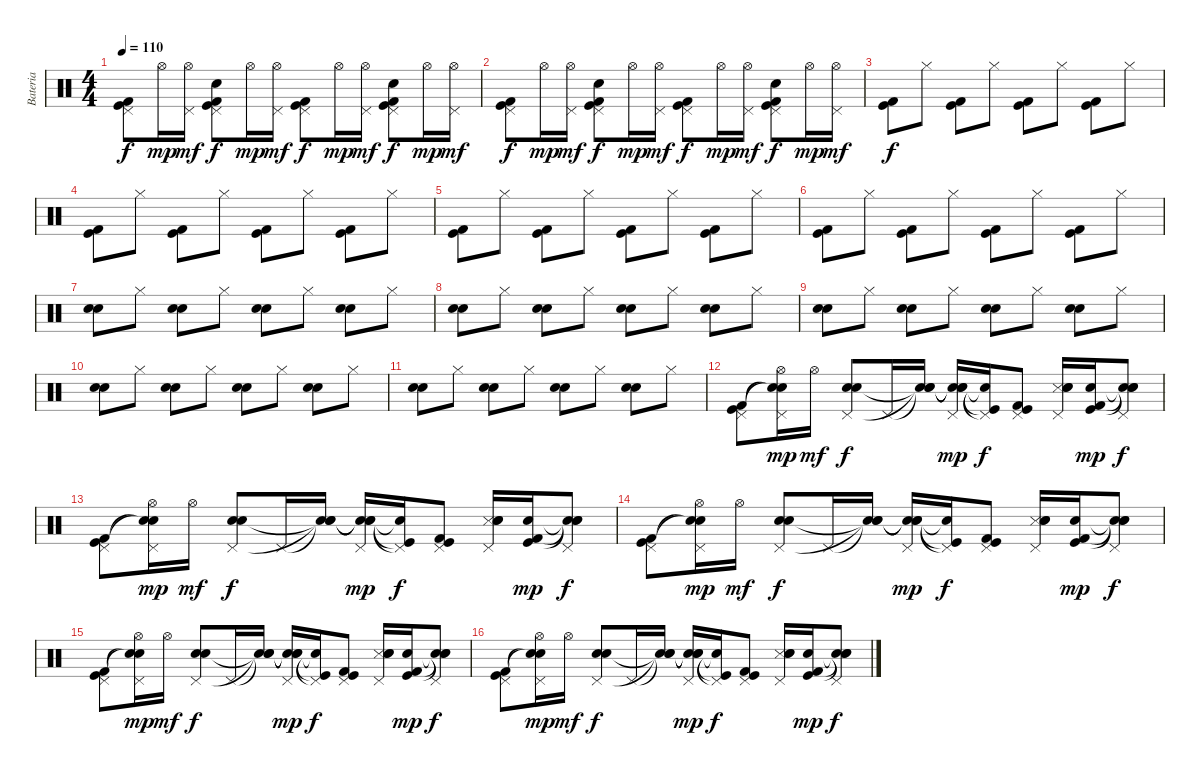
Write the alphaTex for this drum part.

\track ("Bateria" "Bateria") {instrument percussion}
\staff {score}
\articulation defaults
\ts (4 4)
\tempo 110
\clef neutral
\ks c
("Kick (hit)" "Kick (hit) 2" "Pedal Hi-Hat (hit)").8{dy f} "Hi-Hat (open)".16{dy mp} ("Hi-Hat (open)" "Pedal Hi-Hat (hit)").16{dy mf} ("Kick (hit) 2" "Kick (hit)" "Electric Snare (hit)" "Pedal Hi-Hat (hit)").8{dy f} "Hi-Hat (open)".16{dy mp} ("Hi-Hat (open)" "Pedal Hi-Hat (hit)").16{dy mf} ("Kick (hit) 2" "Kick (hit)" "Pedal Hi-Hat (hit)").8{dy f} "Hi-Hat (open)".16{dy mp} ("Hi-Hat (open)" "Pedal Hi-Hat (hit)").16{dy mf} ("Kick (hit) 2" "Kick (hit)" "Electric Snare (hit)" "Pedal Hi-Hat (hit)").8{dy f} "Hi-Hat (open)".16{dy mp} ("Hi-Hat (open)" "Pedal Hi-Hat (hit)").16{dy mf} |
("Kick (hit)" "Kick (hit) 2" "Pedal Hi-Hat (hit)").8{dy f} "Hi-Hat (open)".16{dy mp} ("Hi-Hat (open)" "Pedal Hi-Hat (hit)").16{dy mf} ("Kick (hit) 2" "Kick (hit)" "Electric Snare (hit)" "Pedal Hi-Hat (hit)").8{dy f} "Hi-Hat (open)".16{dy mp} ("Hi-Hat (open)" "Pedal Hi-Hat (hit)").16{dy mf} ("Kick (hit) 2" "Kick (hit)" "Pedal Hi-Hat (hit)").8{dy f} "Hi-Hat (open)".16{dy mp} ("Hi-Hat (open)" "Pedal Hi-Hat (hit)").16{dy mf} ("Kick (hit) 2" "Kick (hit)" "Electric Snare (hit)" "Pedal Hi-Hat (hit)").8{dy f} "Hi-Hat (open)".16{dy mp} ("Hi-Hat (open)" "Pedal Hi-Hat (hit)").16{dy mf} |
("Kick (hit)" "Kick (hit) 2").8{dy f} "Hi-Hat (closed)".8 ("Kick (hit) 2" "Kick (hit)").8 "Hi-Hat (closed)".8 ("Kick (hit) 2" "Kick (hit)").8 "Hi-Hat (closed)".8 ("Kick (hit) 2" "Kick (hit)").8 "Hi-Hat (closed)".8 |
("Kick (hit)" "Kick (hit) 2").8 "Hi-Hat (closed)".8 ("Kick (hit) 2" "Kick (hit)").8 "Hi-Hat (closed)".8 ("Kick (hit) 2" "Kick (hit)").8 "Hi-Hat (closed)".8 ("Kick (hit) 2" "Kick (hit)").8 "Hi-Hat (closed)".8 |
("Kick (hit)" "Kick (hit) 2").8 "Hi-Hat (closed)".8 ("Kick (hit) 2" "Kick (hit)").8 "Hi-Hat (closed)".8 ("Kick (hit) 2" "Kick (hit)").8 "Hi-Hat (closed)".8 ("Kick (hit) 2" "Kick (hit)").8 "Hi-Hat (closed)".8 |
("Kick (hit)" "Kick (hit) 2").8 "Hi-Hat (closed)".8 ("Kick (hit) 2" "Kick (hit)").8 "Hi-Hat (closed)".8 ("Kick (hit) 2" "Kick (hit)").8 "Hi-Hat (closed)".8 ("Kick (hit) 2" "Kick (hit)").8 "Hi-Hat (closed)".8 |
("Electric Snare (hit)" "Snare (hit) 2").8 "Hi-Hat (closed)".8 ("Electric Snare (hit)" "Snare (hit) 2").8 "Hi-Hat (closed)".8 ("Electric Snare (hit)" "Snare (hit) 2").8 "Hi-Hat (closed)".8 ("Electric Snare (hit)" "Snare (hit) 2").8 "Hi-Hat (closed)".8 |
("Electric Snare (hit)" "Snare (hit) 2").8 "Hi-Hat (closed)".8 ("Electric Snare (hit)" "Snare (hit) 2").8 "Hi-Hat (closed)".8 ("Electric Snare (hit)" "Snare (hit) 2").8 "Hi-Hat (closed)".8 ("Electric Snare (hit)" "Snare (hit) 2").8 "Hi-Hat (closed)".8 |
("Electric Snare (hit)" "Snare (hit) 2").8 "Hi-Hat (closed)".8 ("Electric Snare (hit)" "Snare (hit) 2").8 "Hi-Hat (closed)".8 ("Electric Snare (hit)" "Snare (hit) 2").8 "Hi-Hat (closed)".8 ("Electric Snare (hit)" "Snare (hit) 2").8 "Hi-Hat (closed)".8 |
("Electric Snare (hit)" "Snare (hit) 2").8 "Hi-Hat (closed)".8 ("Electric Snare (hit)" "Snare (hit) 2").8 "Hi-Hat (closed)".8 ("Electric Snare (hit)" "Snare (hit) 2").8 "Hi-Hat (closed)".8 ("Electric Snare (hit)" "Snare (hit) 2").8 "Hi-Hat (closed)".8 |
("Electric Snare (hit)" "Snare (hit) 2").8 "Hi-Hat (closed)".8 ("Electric Snare (hit)" "Snare (hit) 2").8 "Hi-Hat (closed)".8 ("Electric Snare (hit)" "Snare (hit) 2").8 "Hi-Hat (closed)".8 ("Electric Snare (hit)" "Snare (hit) 2").8 "Hi-Hat (closed)".8 |
("Kick (hit)" "Kick (hit) 2" "Pedal Hi-Hat (hit)").8 ("Snare (hit)"{t} "Snare (hit)"{t} "Hi-Hat (open)" "Pedal Hi-Hat (hit)").16{dy mp} "Hi-Hat (open)".16{dy mf} ("Snare (hit) 2" "Electric Snare (hit)" "Pedal Hi-Hat (hit)").8{dy f} "Pedal Hi-Hat (hit)".16 ("Snare (hit)"{t} "Snare (hit)"{t} "Snare (hit)"{t}).16 ("Snare (hit)"{t} "Snare (hit)"{t} "Snare (hit)"{t} "Pedal Hi-Hat (hit)").16{dy mp} ("Snare (hit) 2"{t} "Pedal Hi-Hat (hit)"{t} "Kick (hit)"{t}).16{dy f} ("Kick (hit) 2" "Kick (hit)" "Pedal Hi-Hat (hit)").8 ("Snare (side stick) 3" "Electric Snare (hit)" "Snare (hit) 2" "Pedal Hi-Hat (hit)").16 ("Kick (hit) 2" "Snare (hit) 2" "Kick (hit)").16{dy mp} ("Snare (hit)"{t} "Snare (hit)"{t} "Snare (hit)"{t} "Pedal Hi-Hat (hit)").8{dy f} |
("Kick (hit)" "Kick (hit) 2" "Pedal Hi-Hat (hit)").8 ("Snare (hit)"{t} "Snare (hit)"{t} "Hi-Hat (open)" "Pedal Hi-Hat (hit)").16{dy mp} "Hi-Hat (open)".16{dy mf} ("Snare (hit) 2" "Electric Snare (hit)" "Pedal Hi-Hat (hit)").8{dy f} "Pedal Hi-Hat (hit)".16 ("Snare (hit)"{t} "Snare (hit)"{t} "Snare (hit)"{t}).16 ("Snare (hit)"{t} "Snare (hit)"{t} "Snare (hit)"{t} "Pedal Hi-Hat (hit)").16{dy mp} ("Snare (hit) 2"{t} "Pedal Hi-Hat (hit)"{t} "Kick (hit)"{t}).16{dy f} ("Kick (hit) 2" "Kick (hit)" "Pedal Hi-Hat (hit)").8 ("Snare (side stick) 3" "Snare (hit) 2" "Electric Snare (hit)" "Pedal Hi-Hat (hit)").16 ("Kick (hit) 2" "Snare (hit) 2" "Kick (hit)").16{dy mp} ("Snare (hit)"{t} "Snare (hit)"{t} "Snare (hit)"{t} "Pedal Hi-Hat (hit)").8{dy f} |
("Kick (hit)" "Kick (hit) 2" "Pedal Hi-Hat (hit)").8 ("Snare (hit)"{t} "Snare (hit)"{t} "Hi-Hat (open)" "Pedal Hi-Hat (hit)").16{dy mp} "Hi-Hat (open)".16{dy mf} ("Snare (hit) 2" "Electric Snare (hit)" "Pedal Hi-Hat (hit)").8{dy f} "Pedal Hi-Hat (hit)".16 ("Snare (hit)"{t} "Snare (hit)"{t} "Snare (hit)"{t}).16 ("Snare (hit)"{t} "Snare (hit)"{t} "Snare (hit)"{t} "Pedal Hi-Hat (hit)").16{dy mp} ("Snare (hit) 2"{t} "Pedal Hi-Hat (hit)"{t} "Kick (hit)"{t}).16{dy f} ("Kick (hit) 2" "Kick (hit)" "Pedal Hi-Hat (hit)").8 ("Snare (side stick) 3" "Electric Snare (hit)" "Snare (hit) 2" "Pedal Hi-Hat (hit)").16 ("Kick (hit) 2" "Snare (hit) 2" "Kick (hit)").16{dy mp} ("Snare (hit)"{t} "Snare (hit)"{t} "Snare (hit)"{t} "Pedal Hi-Hat (hit)").8{dy f} |
("Kick (hit)" "Kick (hit) 2" "Pedal Hi-Hat (hit)").8 ("Snare (hit)"{t} "Snare (hit)"{t} "Hi-Hat (open)" "Pedal Hi-Hat (hit)").16{dy mp} "Hi-Hat (open)".16{dy mf} ("Snare (hit) 2" "Electric Snare (hit)" "Pedal Hi-Hat (hit)").8{dy f} "Pedal Hi-Hat (hit)".16 ("Snare (hit)"{t} "Snare (hit)"{t} "Snare (hit)"{t}).16 ("Snare (hit)"{t} "Snare (hit)"{t} "Snare (hit)"{t} "Pedal Hi-Hat (hit)").16{dy mp} ("Snare (hit) 2"{t} "Pedal Hi-Hat (hit)"{t} "Kick (hit)"{t}).16{dy f} ("Kick (hit) 2" "Kick (hit)" "Pedal Hi-Hat (hit)").8 ("Snare (side stick) 3" "Electric Snare (hit)" "Snare (hit) 2" "Pedal Hi-Hat (hit)").16 ("Kick (hit) 2" "Snare (hit) 2" "Kick (hit)").16{dy mp} ("Snare (hit)"{t} "Snare (hit)"{t} "Snare (hit)"{t} "Pedal Hi-Hat (hit)").8{dy f} |
("Kick (hit)" "Kick (hit) 2" "Pedal Hi-Hat (hit)").8 ("Snare (hit)"{t} "Snare (hit)"{t} "Hi-Hat (open)" "Pedal Hi-Hat (hit)").16{dy mp} "Hi-Hat (open)".16{dy mf} ("Snare (hit) 2" "Electric Snare (hit)" "Pedal Hi-Hat (hit)").8{dy f} "Pedal Hi-Hat (hit)".16 ("Snare (hit)"{t} "Snare (hit)"{t} "Snare (hit)"{t}).16 ("Snare (hit)"{t} "Snare (hit)"{t} "Snare (hit)"{t} "Pedal Hi-Hat (hit)").16{dy mp} ("Snare (hit) 2"{t} "Pedal Hi-Hat (hit)"{t} "Kick (hit)"{t}).16{dy f} ("Kick (hit) 2" "Kick (hit)" "Pedal Hi-Hat (hit)").8 ("Snare (side stick) 3" "Electric Snare (hit)" "Snare (hit) 2" "Pedal Hi-Hat (hit)").16 ("Kick (hit) 2" "Snare (hit) 2" "Kick (hit)").16{dy mp} ("Snare (hit)"{t} "Snare (hit)"{t} "Snare (hit)"{t} "Pedal Hi-Hat (hit)").8{dy f}
